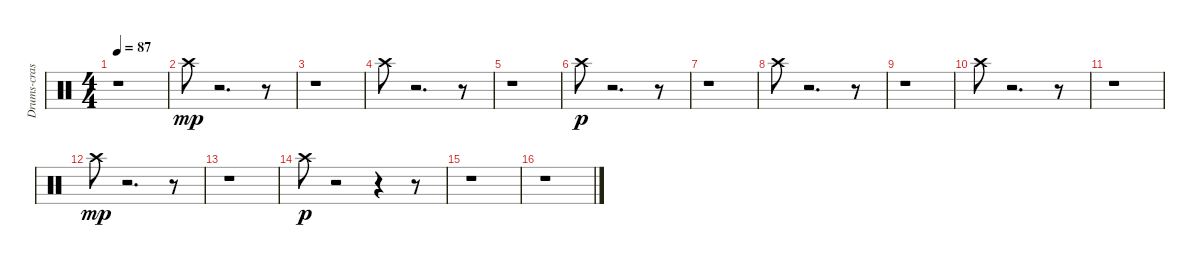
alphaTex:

\track ("Drums-crash cymbal 1" "Drums-cras") {instrument percussion}
\staff {score}
\articulation defaults
\ts (4 4)
\tempo 87
\clef neutral
\ks c
r.1{dy mp} |
"Crash high (hit)".8 r.2{d} r.8 |
r.1 |
"Crash high (hit)".8 r.2{d} r.8 |
r.1 |
"Crash high (hit)".8{dy p} r.2{d} r.8 |
r.1 |
"Crash high (hit)".8 r.2{d} r.8 |
r.1 |
"Crash high (hit)".8 r.2{d} r.8 |
r.1 |
"Crash high (hit)".8{dy mp} r.2{d} r.8 |
r.1 |
"Crash high (hit)".8{dy p} r.2 r.4 r.8 |
r.1 |
r.1
